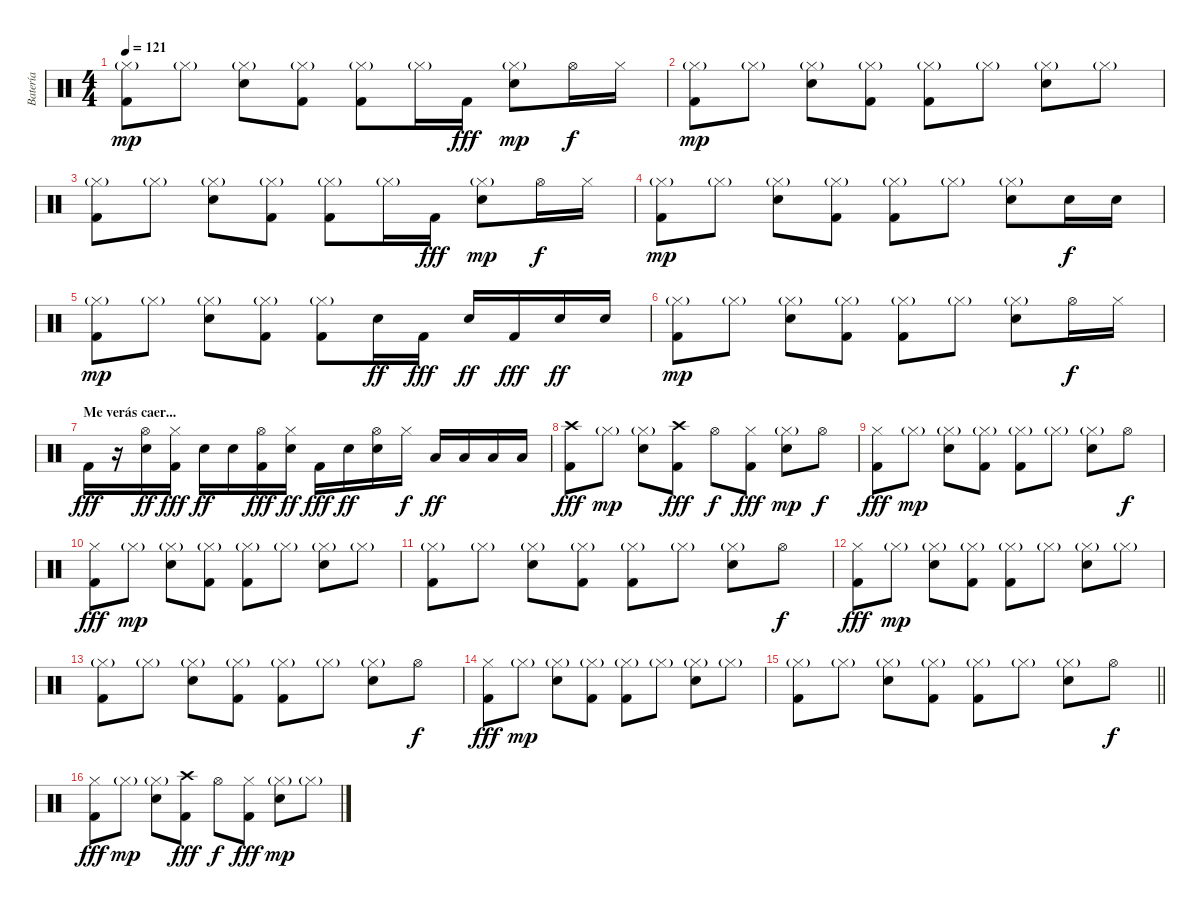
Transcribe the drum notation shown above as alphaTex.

\track ("Batería" "Batería") {instrument percussion}
\staff {score}
\articulation defaults
\ts (4 4)
\tempo 121
\clef neutral
\ks c
("Kick (hit) 2" "Hi-Hat (closed)"{g}).8{dy mp} "Hi-Hat (closed)"{g}.8 ("Snare (hit) 2" "Hi-Hat (closed)"{g}).8 ("Kick (hit) 2" "Hi-Hat (closed)"{g}).8 ("Kick (hit) 2" "Hi-Hat (closed)"{g}).8 "Hi-Hat (closed)"{g}.16 "Kick (hit) 2".16{dy fff} ("Snare (hit) 2" "Hi-Hat (closed)"{g}).8{dy mp} "Hi-Hat (open)".16{dy f} "Hi-Hat (closed)".16 |
("Kick (hit) 2" "Hi-Hat (closed)"{g}).8{dy mp} "Hi-Hat (closed)"{g}.8 ("Snare (hit) 2" "Hi-Hat (closed)"{g}).8 ("Kick (hit) 2" "Hi-Hat (closed)"{g}).8 ("Kick (hit) 2" "Hi-Hat (closed)"{g}).8 "Hi-Hat (closed)"{g}.8 ("Snare (hit) 2" "Hi-Hat (closed)"{g}).8 "Hi-Hat (closed)"{g}.8 |
("Kick (hit) 2" "Hi-Hat (closed)"{g}).8 "Hi-Hat (closed)"{g}.8 ("Snare (hit) 2" "Hi-Hat (closed)"{g}).8 ("Kick (hit) 2" "Hi-Hat (closed)"{g}).8 ("Kick (hit) 2" "Hi-Hat (closed)"{g}).8 "Hi-Hat (closed)"{g}.16 "Kick (hit) 2".16{dy fff} ("Snare (hit) 2" "Hi-Hat (closed)"{g}).8{dy mp} "Hi-Hat (open)".16{dy f} "Hi-Hat (closed)".16 |
("Kick (hit) 2" "Hi-Hat (closed)"{g}).8{dy mp} "Hi-Hat (closed)"{g}.8 ("Snare (hit) 2" "Hi-Hat (closed)"{g}).8 ("Kick (hit) 2" "Hi-Hat (closed)"{g}).8 ("Kick (hit) 2" "Hi-Hat (closed)"{g}).8 "Hi-Hat (closed)"{g}.8 ("Snare (hit) 2" "Hi-Hat (closed)"{g}).8 "Snare (hit) 2".16{dy f} "Snare (hit) 2".16 |
("Kick (hit) 2" "Hi-Hat (closed)"{g}).8{dy mp} "Hi-Hat (closed)"{g}.8 ("Snare (hit) 2" "Hi-Hat (closed)"{g}).8 ("Kick (hit) 2" "Hi-Hat (closed)"{g}).8 ("Kick (hit) 2" "Hi-Hat (closed)"{g}).8 "Snare (hit) 2".16{dy ff} "Kick (hit) 2".16{dy fff} "Snare (hit) 2".16{dy ff} "Kick (hit) 2".16{dy fff} "Snare (hit) 2".16{dy ff} "Snare (hit) 2".16 |
("Kick (hit) 2" "Hi-Hat (closed)"{g}).8{dy mp} "Hi-Hat (closed)"{g}.8 ("Snare (hit) 2" "Hi-Hat (closed)"{g}).8 ("Kick (hit) 2" "Hi-Hat (closed)"{g}).8 ("Kick (hit) 2" "Hi-Hat (closed)"{g}).8 "Hi-Hat (closed)"{g}.8 ("Snare (hit) 2" "Hi-Hat (closed)"{g}).8 "Hi-Hat (open)".16{dy f} "Hi-Hat (closed)".16 |
\section ("" "Me verás caer...")
"Kick (hit) 2".16{dy fff} r.16 ("Snare (hit) 2" "Hi-Hat (open)").16{dy ff} ("Kick (hit) 2" "Hi-Hat (closed)").16{dy fff} "Snare (hit) 2".16{dy ff} "Snare (hit) 2".16 ("Kick (hit) 2" "Hi-Hat (open)").16{dy fff} ("Snare (hit) 2" "Hi-Hat (closed)").16{dy ff} "Kick (hit) 2".16{dy fff} "Snare (hit) 2".16{dy ff} ("Snare (hit) 2" "Hi-Hat (open)").16 "Hi-Hat (closed)".16{dy f} "Low Tom (hit)".16{dy ff} "Low Tom (hit)".16 "Low Floor Tom (hit)".16 "Low Floor Tom (hit)".16 |
("Kick (hit) 2" "Crash high (hit)").8{dy fff} "Hi-Hat (closed)"{g}.8{dy mp} ("Snare (hit) 2" "Hi-Hat (closed)"{g}).8 ("Kick (hit) 2" "Crash high (hit)").8{dy fff} "Hi-Hat (open)".8{dy f} ("Kick (hit) 2" "Hi-Hat (closed)").8{dy fff} ("Snare (hit) 2" "Hi-Hat (closed)"{g}).8{dy mp} "Hi-Hat (open)".8{dy f} |
("Kick (hit) 2" "Hi-Hat (closed)").8{dy fff} "Hi-Hat (closed)"{g}.8{dy mp} ("Snare (hit) 2" "Hi-Hat (closed)"{g}).8 ("Kick (hit) 2" "Hi-Hat (closed)"{g}).8 ("Kick (hit) 2" "Hi-Hat (closed)"{g}).8 "Hi-Hat (closed)"{g}.8 ("Snare (hit) 2" "Hi-Hat (closed)"{g}).8 "Hi-Hat (open)".8{dy f} |
("Kick (hit) 2" "Hi-Hat (closed)").8{dy fff} "Hi-Hat (closed)"{g}.8{dy mp} ("Snare (hit) 2" "Hi-Hat (closed)"{g}).8 ("Kick (hit) 2" "Hi-Hat (closed)"{g}).8 ("Kick (hit) 2" "Hi-Hat (closed)"{g}).8 "Hi-Hat (closed)"{g}.8 ("Snare (hit) 2" "Hi-Hat (closed)"{g}).8 "Hi-Hat (closed)"{g}.8 |
("Kick (hit) 2" "Hi-Hat (closed)"{g}).8 "Hi-Hat (closed)"{g}.8 ("Snare (hit) 2" "Hi-Hat (closed)"{g}).8 ("Kick (hit) 2" "Hi-Hat (closed)"{g}).8 ("Kick (hit) 2" "Hi-Hat (closed)"{g}).8 "Hi-Hat (closed)"{g}.8 ("Snare (hit) 2" "Hi-Hat (closed)"{g}).8 "Hi-Hat (open)".8{dy f} |
("Kick (hit) 2" "Hi-Hat (closed)").8{dy fff} "Hi-Hat (closed)"{g}.8{dy mp} ("Snare (hit) 2" "Hi-Hat (closed)"{g}).8 ("Kick (hit) 2" "Hi-Hat (closed)"{g}).8 ("Kick (hit) 2" "Hi-Hat (closed)"{g}).8 "Hi-Hat (closed)"{g}.8 ("Snare (hit) 2" "Hi-Hat (closed)"{g}).8 "Hi-Hat (closed)"{g}.8 |
("Kick (hit) 2" "Hi-Hat (closed)"{g}).8 "Hi-Hat (closed)"{g}.8 ("Snare (hit) 2" "Hi-Hat (closed)"{g}).8 ("Kick (hit) 2" "Hi-Hat (closed)"{g}).8 ("Kick (hit) 2" "Hi-Hat (closed)"{g}).8 "Hi-Hat (closed)"{g}.8 ("Snare (hit) 2" "Hi-Hat (closed)"{g}).8 "Hi-Hat (open)".8{dy f} |
("Kick (hit) 2" "Hi-Hat (closed)").8{dy fff} "Hi-Hat (closed)"{g}.8{dy mp} ("Snare (hit) 2" "Hi-Hat (closed)"{g}).8 ("Kick (hit) 2" "Hi-Hat (closed)"{g}).8 ("Kick (hit) 2" "Hi-Hat (closed)"{g}).8 "Hi-Hat (closed)"{g}.8 ("Snare (hit) 2" "Hi-Hat (closed)"{g}).8 "Hi-Hat (closed)"{g}.8 |
\barLineRight lightlight
("Kick (hit) 2" "Hi-Hat (closed)"{g}).8 "Hi-Hat (closed)"{g}.8 ("Snare (hit) 2" "Hi-Hat (closed)"{g}).8 ("Kick (hit) 2" "Hi-Hat (closed)"{g}).8 ("Kick (hit) 2" "Hi-Hat (closed)"{g}).8 "Hi-Hat (closed)"{g}.8 ("Snare (hit) 2" "Hi-Hat (closed)"{g}).8 "Hi-Hat (open)".8{dy f} |
("Kick (hit) 2" "Hi-Hat (closed)").8{dy fff} "Hi-Hat (closed)"{g}.8{dy mp} ("Snare (hit) 2" "Hi-Hat (closed)"{g}).8 ("Kick (hit) 2" "Crash high (hit)").8{dy fff} "Hi-Hat (open)".8{dy f} ("Kick (hit) 2" "Hi-Hat (closed)").8{dy fff} ("Snare (hit) 2" "Hi-Hat (closed)"{g}).8{dy mp} "Hi-Hat (closed)"{g}.8
